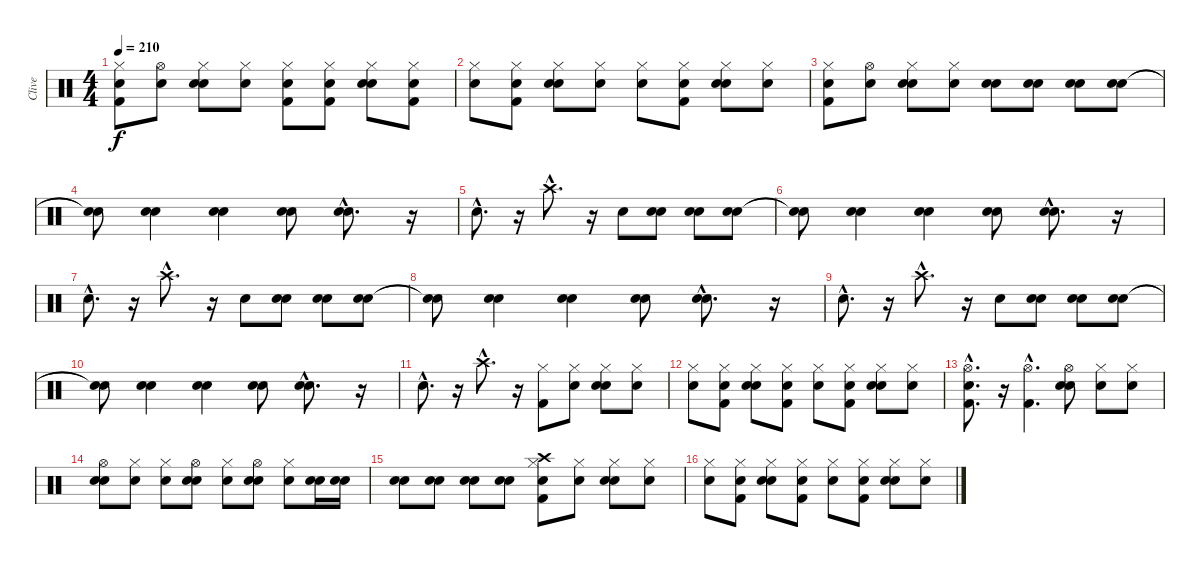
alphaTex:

\track ("Clive" "Clive") {instrument percussion}
\staff {score}
\articulation defaults
\ts (4 4)
\tempo 210
\clef neutral
\ks c
("Snare (hit)" "Kick (hit) 2" "Hi-Hat (closed)").8{dy f} ("Snare (hit)" "Hi-Hat (open)").8 ("Snare (hit)" "Snare (hit) 2" "Hi-Hat (closed)").8 ("Snare (hit)" "Hi-Hat (closed)").8 ("Snare (hit)" "Kick (hit) 2" "Hi-Hat (closed)").8 ("Snare (hit)" "Kick (hit) 2" "Hi-Hat (closed)").8 ("Snare (hit)" "Snare (hit) 2" "Hi-Hat (closed)").8 ("Snare (hit)" "Kick (hit) 2" "Hi-Hat (closed)").8 |
("Snare (hit)" "Hi-Hat (closed)").8 ("Snare (hit)" "Kick (hit) 2" "Hi-Hat (closed)").8 ("Snare (hit)" "Snare (hit) 2" "Hi-Hat (closed)").8 ("Snare (hit)" "Hi-Hat (closed)").8 ("Snare (hit)" "Hi-Hat (closed)").8 ("Snare (hit)" "Kick (hit) 2" "Hi-Hat (closed)").8 ("Snare (hit)" "Snare (hit) 2" "Hi-Hat (closed)").8 ("Snare (hit)" "Hi-Hat (closed)").8 |
("Snare (hit)" "Kick (hit) 2" "Hi-Hat (closed)").8 ("Snare (hit)" "Hi-Hat (open)").8 ("Snare (hit)" "Snare (hit) 2" "Hi-Hat (closed)").8 ("Snare (hit)" "Hi-Hat (closed)").8 ("Snare (hit)" "Snare (hit) 2").8 ("Snare (hit)" "Snare (hit) 2").8 ("Snare (hit)" "Snare (hit) 2").8 ("Snare (hit)" "Snare (hit) 2").8 |
("Snare (hit)"{t} "Snare (hit)"{t}).8 ("Snare (hit)" "Snare (hit) 2").4 ("Snare (hit)" "Snare (hit) 2").4 ("Snare (hit)" "Snare (hit) 2").8 ("Snare (hit)"{hac} "Snare (hit) 2"{hac}).8{d} r.16 |
"Snare (hit) 2"{hac}.8{d} r.16 "Crash high (hit)"{hac}.8{d} r.16 "Snare (hit) 2".8 ("Snare (hit)" "Snare (hit) 2").8 ("Snare (hit)" "Snare (hit) 2").8 ("Snare (hit)" "Snare (hit) 2").8 |
("Snare (hit)"{t} "Snare (hit)"{t}).8 ("Snare (hit)" "Snare (hit) 2").4 ("Snare (hit)" "Snare (hit) 2").4 ("Snare (hit)" "Snare (hit) 2").8 ("Snare (hit)"{hac} "Snare (hit) 2"{hac}).8{d} r.16 |
"Snare (hit) 2"{hac}.8{d} r.16 "Crash high (hit)"{hac}.8{d} r.16 "Snare (hit) 2".8 ("Snare (hit)" "Snare (hit) 2").8 ("Snare (hit)" "Snare (hit) 2").8 ("Snare (hit)" "Snare (hit) 2").8 |
("Snare (hit)"{t} "Snare (hit)"{t}).8 ("Snare (hit)" "Snare (hit) 2").4 ("Snare (hit)" "Snare (hit) 2").4 ("Snare (hit)" "Snare (hit) 2").8 ("Snare (hit)"{hac} "Snare (hit) 2"{hac}).8{d} r.16 |
"Snare (hit) 2"{hac}.8{d} r.16 "Crash high (hit)"{hac}.8{d} r.16 "Snare (hit) 2".8 ("Snare (hit)" "Snare (hit) 2").8 ("Snare (hit)" "Snare (hit) 2").8 ("Snare (hit)" "Snare (hit) 2").8 |
("Snare (hit)"{t} "Snare (hit)"{t}).8 ("Snare (hit)" "Snare (hit) 2").4 ("Snare (hit)" "Snare (hit) 2").4 ("Snare (hit)" "Snare (hit) 2").8 ("Snare (hit)"{hac} "Snare (hit) 2"{hac}).8{d} r.16 |
"Snare (hit) 2"{hac}.8{d} r.16 "Crash high (hit)"{hac}.8{d} r.16 ("Kick (hit) 2" "Hi-Hat (closed)").8 ("Snare (hit)" "Hi-Hat (closed)").8 ("Snare (hit)" "Snare (hit) 2" "Hi-Hat (closed)").8 ("Snare (hit)" "Hi-Hat (closed)").8 |
("Snare (hit)" "Hi-Hat (closed)").8 ("Snare (hit)" "Kick (hit) 2" "Hi-Hat (closed)").8 ("Snare (hit)" "Snare (hit) 2" "Hi-Hat (closed)").8 ("Snare (hit)" "Kick (hit) 2" "Hi-Hat (closed)").8 ("Snare (hit)" "Hi-Hat (closed)").8 ("Snare (hit)" "Kick (hit) 2" "Hi-Hat (closed)").8 ("Snare (hit)" "Snare (hit) 2" "Hi-Hat (closed)").8 ("Snare (hit)" "Hi-Hat (closed)").8 |
("Snare (hit)"{hac} "Kick (hit) 2"{hac} "Hi-Hat (open)"{hac}).8{d} r.16 ("Kick (hit) 2"{hac} "Hi-Hat (open)"{hac}).4{d} ("Snare (hit)" "Snare (hit) 2" "Hi-Hat (open)").8 ("Snare (hit)" "Hi-Hat (closed)").8 ("Snare (hit)" "Hi-Hat (closed)").8 |
("Snare (hit)" "Snare (hit) 2" "Hi-Hat (open)").8 ("Snare (hit)" "Hi-Hat (closed)").8 ("Snare (hit)" "Hi-Hat (closed)").8 ("Snare (hit)" "Snare (hit) 2" "Hi-Hat (open)").8 ("Snare (hit)" "Hi-Hat (closed)").8 ("Snare (hit)" "Snare (hit) 2" "Hi-Hat (open)").8 ("Snare (hit)" "Hi-Hat (closed)").8 ("Snare (hit)" "Snare (hit) 2").16 ("Snare (hit)" "Snare (hit) 2").16 |
("Snare (hit)" "Snare (hit) 2").8 ("Snare (hit)" "Snare (hit) 2").8 ("Snare (hit)" "Snare (hit) 2").8 ("Snare (hit)" "Snare (hit) 2").8 ("Snare (hit)" "Kick (hit) 2" "Hi-Hat (closed)" "Crash high (hit)").8 ("Snare (hit)" "Hi-Hat (closed)").8 ("Snare (hit)" "Snare (hit) 2" "Hi-Hat (closed)").8 ("Snare (hit)" "Hi-Hat (closed)").8 |
("Snare (hit)" "Hi-Hat (closed)").8 ("Snare (hit)" "Kick (hit) 2" "Hi-Hat (closed)").8 ("Snare (hit)" "Snare (hit) 2" "Hi-Hat (closed)").8 ("Snare (hit)" "Kick (hit) 2" "Hi-Hat (closed)").8 ("Snare (hit)" "Hi-Hat (closed)").8 ("Snare (hit)" "Kick (hit) 2" "Hi-Hat (closed)").8 ("Snare (hit)" "Snare (hit) 2" "Hi-Hat (closed)").8 ("Snare (hit)" "Hi-Hat (closed)").8
